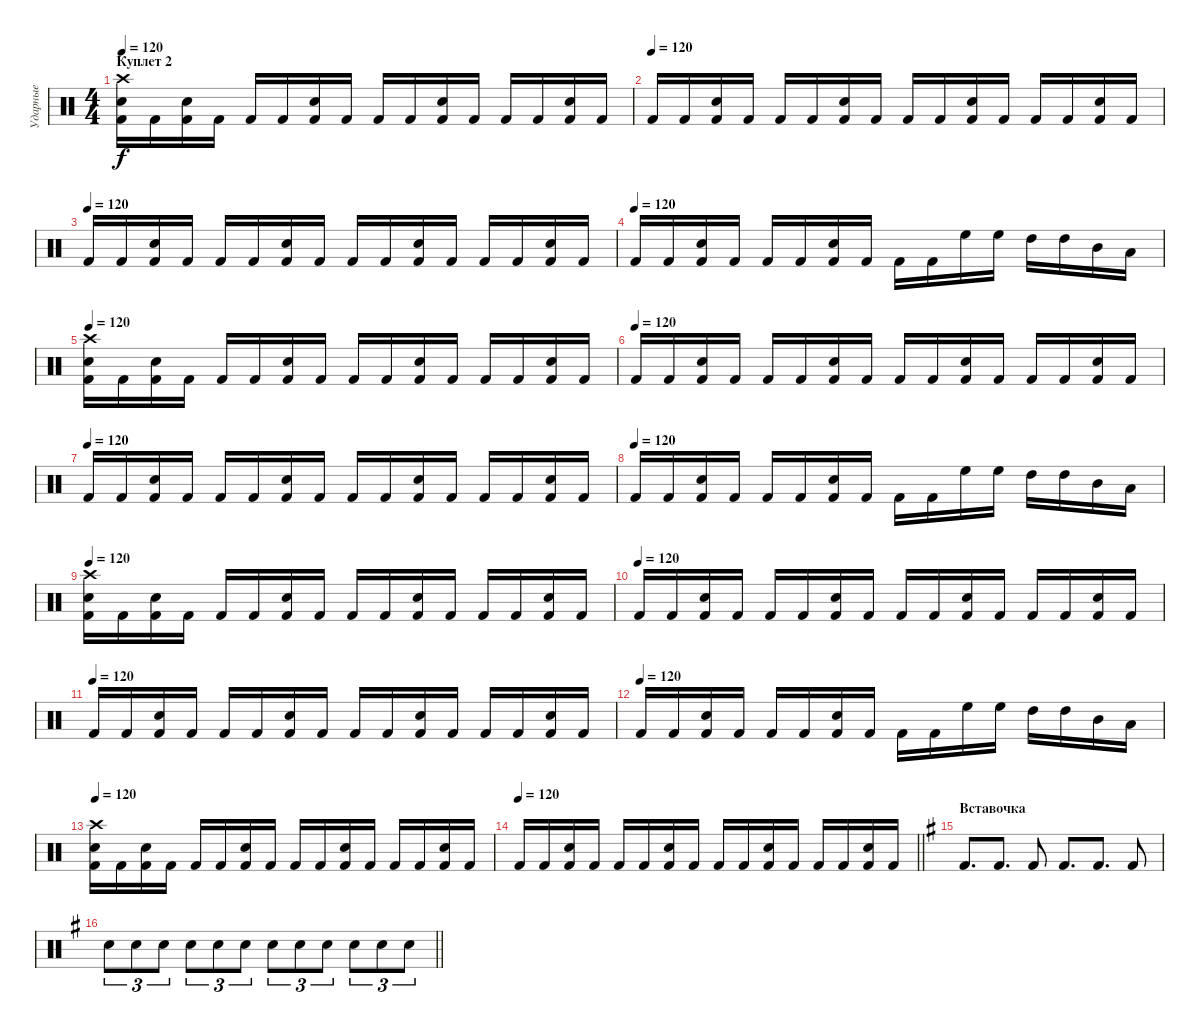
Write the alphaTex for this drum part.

\track ("Ударные" "Ударные") {solo instrument percussion}
\staff {score}
\articulation defaults
\ts (4 4)
\section ("" "Куплет 2")
\tempo 120
\clef neutral
\ks c
("Crash high (hit)" "Electric Snare (hit)" "Kick (hit) 2").16{dy f} "Kick (hit) 2".16 ("Electric Snare (hit)" "Kick (hit) 2").16 "Kick (hit) 2".16 "Kick (hit) 2".16 "Kick (hit) 2".16 ("Electric Snare (hit)" "Kick (hit) 2").16 "Kick (hit) 2".16 "Kick (hit) 2".16 "Kick (hit) 2".16 ("Electric Snare (hit)" "Kick (hit) 2").16 "Kick (hit) 2".16 "Kick (hit) 2".16 "Kick (hit) 2".16 ("Electric Snare (hit)" "Kick (hit) 2").16 "Kick (hit) 2".16 |
\tempo (120)
"Kick (hit) 2".16 "Kick (hit) 2".16 ("Electric Snare (hit)" "Kick (hit) 2").16 "Kick (hit) 2".16 "Kick (hit) 2".16 "Kick (hit) 2".16 ("Electric Snare (hit)" "Kick (hit) 2").16 "Kick (hit) 2".16 "Kick (hit) 2".16 "Kick (hit) 2".16 ("Electric Snare (hit)" "Kick (hit) 2").16 "Kick (hit) 2".16 "Kick (hit) 2".16 "Kick (hit) 2".16 ("Electric Snare (hit)" "Kick (hit) 2").16 "Kick (hit) 2".16 |
\tempo (120)
"Kick (hit) 2".16 "Kick (hit) 2".16 ("Electric Snare (hit)" "Kick (hit) 2").16 "Kick (hit) 2".16 "Kick (hit) 2".16 "Kick (hit) 2".16 ("Electric Snare (hit)" "Kick (hit) 2").16 "Kick (hit) 2".16 "Kick (hit) 2".16 "Kick (hit) 2".16 ("Electric Snare (hit)" "Kick (hit) 2").16 "Kick (hit) 2".16 "Kick (hit) 2".16 "Kick (hit) 2".16 ("Electric Snare (hit)" "Kick (hit) 2").16 "Kick (hit) 2".16 |
\tempo (120)
"Kick (hit) 2".16 "Kick (hit) 2".16 ("Electric Snare (hit)" "Kick (hit) 2").16 "Kick (hit) 2".16 "Kick (hit) 2".16 "Kick (hit) 2".16 ("Electric Snare (hit)" "Kick (hit) 2").16 "Kick (hit) 2".16 "Kick (hit) 2".16 "Kick (hit) 2".16 "High Floor Tom (hit)".16 "High Floor Tom (hit)".16 "High Tom (hit)".16 "High Tom (hit)".16 "Mid Tom (hit)".16 "Low Tom (hit)".16 |
\tempo 120
("Crash high (hit)" "Electric Snare (hit)" "Kick (hit) 2").16 "Kick (hit) 2".16 ("Electric Snare (hit)" "Kick (hit) 2").16 "Kick (hit) 2".16 "Kick (hit) 2".16 "Kick (hit) 2".16 ("Electric Snare (hit)" "Kick (hit) 2").16 "Kick (hit) 2".16 "Kick (hit) 2".16 "Kick (hit) 2".16 ("Electric Snare (hit)" "Kick (hit) 2").16 "Kick (hit) 2".16 "Kick (hit) 2".16 "Kick (hit) 2".16 ("Electric Snare (hit)" "Kick (hit) 2").16 "Kick (hit) 2".16 |
\tempo (120)
"Kick (hit) 2".16 "Kick (hit) 2".16 ("Electric Snare (hit)" "Kick (hit) 2").16 "Kick (hit) 2".16 "Kick (hit) 2".16 "Kick (hit) 2".16 ("Electric Snare (hit)" "Kick (hit) 2").16 "Kick (hit) 2".16 "Kick (hit) 2".16 "Kick (hit) 2".16 ("Electric Snare (hit)" "Kick (hit) 2").16 "Kick (hit) 2".16 "Kick (hit) 2".16 "Kick (hit) 2".16 ("Electric Snare (hit)" "Kick (hit) 2").16 "Kick (hit) 2".16 |
\tempo (120)
"Kick (hit) 2".16 "Kick (hit) 2".16 ("Electric Snare (hit)" "Kick (hit) 2").16 "Kick (hit) 2".16 "Kick (hit) 2".16 "Kick (hit) 2".16 ("Electric Snare (hit)" "Kick (hit) 2").16 "Kick (hit) 2".16 "Kick (hit) 2".16 "Kick (hit) 2".16 ("Electric Snare (hit)" "Kick (hit) 2").16 "Kick (hit) 2".16 "Kick (hit) 2".16 "Kick (hit) 2".16 ("Electric Snare (hit)" "Kick (hit) 2").16 "Kick (hit) 2".16 |
\tempo (120)
"Kick (hit) 2".16 "Kick (hit) 2".16 ("Electric Snare (hit)" "Kick (hit) 2").16 "Kick (hit) 2".16 "Kick (hit) 2".16 "Kick (hit) 2".16 ("Electric Snare (hit)" "Kick (hit) 2").16 "Kick (hit) 2".16 "Kick (hit) 2".16 "Kick (hit) 2".16 "High Floor Tom (hit)".16 "High Floor Tom (hit)".16 "High Tom (hit)".16 "High Tom (hit)".16 "Mid Tom (hit)".16 "Low Tom (hit)".16 |
\tempo 120
("Crash high (hit)" "Electric Snare (hit)" "Kick (hit) 2").16 "Kick (hit) 2".16 ("Electric Snare (hit)" "Kick (hit) 2").16 "Kick (hit) 2".16 "Kick (hit) 2".16 "Kick (hit) 2".16 ("Electric Snare (hit)" "Kick (hit) 2").16 "Kick (hit) 2".16 "Kick (hit) 2".16 "Kick (hit) 2".16 ("Electric Snare (hit)" "Kick (hit) 2").16 "Kick (hit) 2".16 "Kick (hit) 2".16 "Kick (hit) 2".16 ("Electric Snare (hit)" "Kick (hit) 2").16 "Kick (hit) 2".16 |
\tempo (120)
"Kick (hit) 2".16 "Kick (hit) 2".16 ("Electric Snare (hit)" "Kick (hit) 2").16 "Kick (hit) 2".16 "Kick (hit) 2".16 "Kick (hit) 2".16 ("Electric Snare (hit)" "Kick (hit) 2").16 "Kick (hit) 2".16 "Kick (hit) 2".16 "Kick (hit) 2".16 ("Electric Snare (hit)" "Kick (hit) 2").16 "Kick (hit) 2".16 "Kick (hit) 2".16 "Kick (hit) 2".16 ("Electric Snare (hit)" "Kick (hit) 2").16 "Kick (hit) 2".16 |
\tempo (120)
"Kick (hit) 2".16 "Kick (hit) 2".16 ("Electric Snare (hit)" "Kick (hit) 2").16 "Kick (hit) 2".16 "Kick (hit) 2".16 "Kick (hit) 2".16 ("Electric Snare (hit)" "Kick (hit) 2").16 "Kick (hit) 2".16 "Kick (hit) 2".16 "Kick (hit) 2".16 ("Electric Snare (hit)" "Kick (hit) 2").16 "Kick (hit) 2".16 "Kick (hit) 2".16 "Kick (hit) 2".16 ("Electric Snare (hit)" "Kick (hit) 2").16 "Kick (hit) 2".16 |
\tempo (120)
"Kick (hit) 2".16 "Kick (hit) 2".16 ("Electric Snare (hit)" "Kick (hit) 2").16 "Kick (hit) 2".16 "Kick (hit) 2".16 "Kick (hit) 2".16 ("Electric Snare (hit)" "Kick (hit) 2").16 "Kick (hit) 2".16 "Kick (hit) 2".16 "Kick (hit) 2".16 "High Floor Tom (hit)".16 "High Floor Tom (hit)".16 "High Tom (hit)".16 "High Tom (hit)".16 "Mid Tom (hit)".16 "Low Tom (hit)".16 |
\tempo 120
("Crash high (hit)" "Electric Snare (hit)" "Kick (hit) 2").16 "Kick (hit) 2".16 ("Electric Snare (hit)" "Kick (hit) 2").16 "Kick (hit) 2".16 "Kick (hit) 2".16 "Kick (hit) 2".16 ("Electric Snare (hit)" "Kick (hit) 2").16 "Kick (hit) 2".16 "Kick (hit) 2".16 "Kick (hit) 2".16 ("Electric Snare (hit)" "Kick (hit) 2").16 "Kick (hit) 2".16 "Kick (hit) 2".16 "Kick (hit) 2".16 ("Electric Snare (hit)" "Kick (hit) 2").16 "Kick (hit) 2".16 |
\tempo 120
\barLineRight lightlight "Kick (hit) 2".16 "Kick (hit) 2".16
("Electric Snare (hit)" "Kick (hit) 2").16 "Kick (hit) 2".16 "Kick (hit) 2".16 "Kick (hit) 2".16 ("Electric Snare (hit)" "Kick (hit) 2").16 "Kick (hit) 2".16 "Kick (hit) 2".16 "Kick (hit) 2".16 ("Electric Snare (hit)" "Kick (hit) 2").16 "Kick (hit) 2".16 "Kick (hit) 2".16 "Kick (hit) 2".16 ("Electric Snare (hit)" "Kick (hit) 2").16 "Kick (hit) 2".16 |
\section ("" "Вставочка")
\ks g "Kick (hit) 2".8{d} "Kick (hit) 2".8{d} "Kick (hit) 2".8 "Kick (hit) 2".8{d} "Kick (hit) 2".8{d} "Kick (hit) 2".8
|
\barLineRight lightlight "Electric Snare (hit)".8{tu (3 2)} "Electric Snare (hit)".8{tu (3 2)} "Electric Snare (hit)".8{tu (3 2)} "Electric Snare (hit)".8{tu (3 2)} "Electric Snare (hit)".8{tu (3 2)} "Electric Snare (hit)".8{tu (3 2)} "Electric Snare (hit)".8{tu (3 2)} "Electric Snare (hit)".8{tu (3 2)} "Electric Snare (hit)".8{tu (3 2)} "Electric Snare (hit)".8{tu (3 2)} "Electric Snare (hit)".8{tu (3 2)} "Electric Snare (hit)".8{tu (3 2)}
